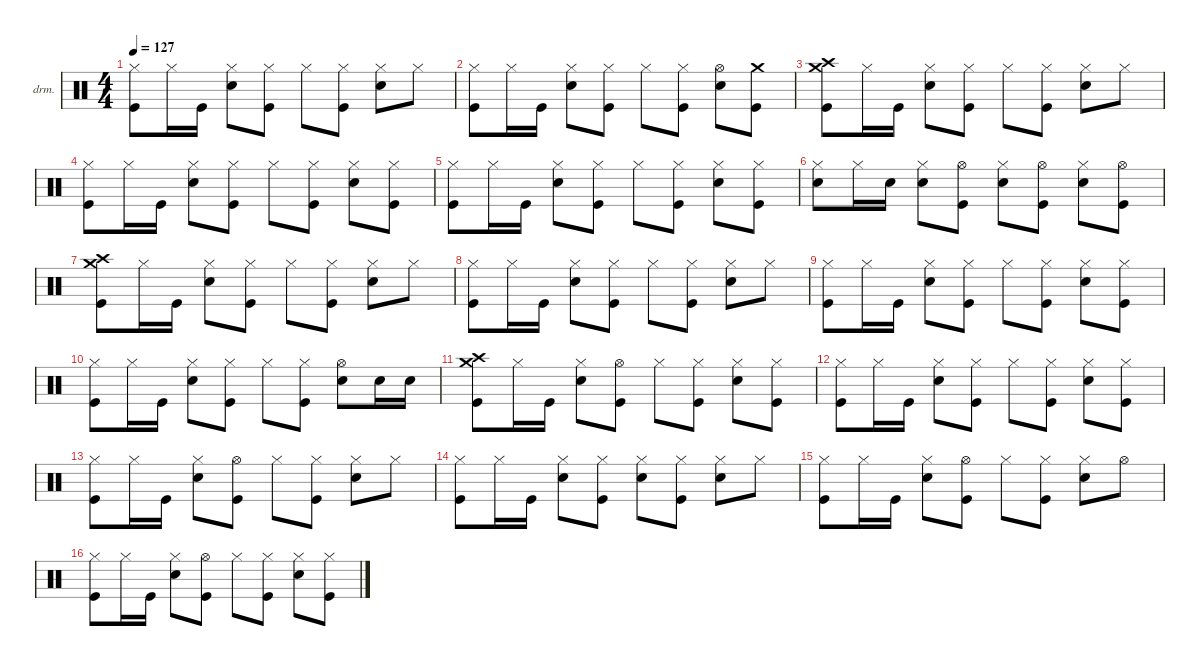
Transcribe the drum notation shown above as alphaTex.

\defaultSystemsLayout 4
\hideDynamics
\bracketExtendMode nobrackets
\firstSystemTrackNameOrientation horizontal
\otherSystemsTrackNameOrientation horizontal
\track ("Drums" "drm.") {instrument percussion}
\staff {score}
\articulation defaults
\ts (4 4)
\tempo 127
\clef neutral
\ks c
("Hi-Hat (closed)" "Kick (hit)").8{dy f beam Down} "Hi-Hat (closed)".16{beam Down} "Kick (hit)".16{beam Down} ("Snare (hit) 2" "Hi-Hat (closed)").8{beam Down} ("Hi-Hat (closed)" "Kick (hit)").8{beam Down} "Hi-Hat (closed)".8{beam Down} ("Hi-Hat (closed)" "Kick (hit)").8{beam Down} ("Snare (hit) 2" "Hi-Hat (closed)").8{beam Down} "Hi-Hat (closed)".8{beam Down} |
("Hi-Hat (closed)" "Kick (hit)").8{beam Down} "Hi-Hat (closed)".16{beam Down} "Kick (hit)".16{beam Down} ("Snare (hit) 2" "Hi-Hat (closed)").8{beam Down} ("Hi-Hat (closed)" "Kick (hit)").8{beam Down} "Hi-Hat (closed)".8{beam Down} ("Hi-Hat (closed)" "Kick (hit)").8{beam Down} ("Snare (hit) 2" "Hi-Hat (open)").8{beam Down} ("Crash medium (hit)" "Kick (hit)").8{beam Down} |
("Crash medium (hit)" "Crash high (hit)" "Kick (hit)").8{beam Down} "Hi-Hat (closed)".16{beam Down} "Kick (hit)".16{beam Down} ("Snare (hit) 2" "Hi-Hat (closed)").8{beam Down} ("Hi-Hat (closed)" "Kick (hit)").8{beam Down} "Hi-Hat (closed)".8{beam Down} ("Hi-Hat (closed)" "Kick (hit)").8{beam Down} ("Snare (hit) 2" "Hi-Hat (closed)").8{beam Down} "Hi-Hat (closed)".8{beam Down} |
("Hi-Hat (closed)" "Kick (hit)").8{beam Down} "Hi-Hat (closed)".16{beam Down} "Kick (hit)".16{beam Down} ("Snare (hit) 2" "Hi-Hat (closed)").8{beam Down} ("Hi-Hat (closed)" "Kick (hit)").8{beam Down} "Hi-Hat (closed)".8{beam Down} ("Hi-Hat (closed)" "Kick (hit)").8{beam Down} ("Snare (hit) 2" "Hi-Hat (closed)").8{beam Down} ("Hi-Hat (closed)" "Kick (hit)").8{beam Down} |
("Hi-Hat (closed)" "Kick (hit)").8{beam Down} "Hi-Hat (closed)".16{beam Down} "Kick (hit)".16{beam Down} ("Snare (hit) 2" "Hi-Hat (closed)").8{beam Down} ("Hi-Hat (closed)" "Kick (hit)").8{beam Down} "Hi-Hat (closed)".8{beam Down} ("Hi-Hat (closed)" "Kick (hit)").8{beam Down} ("Snare (hit) 2" "Hi-Hat (closed)").8{beam Down} ("Hi-Hat (closed)" "Kick (hit)").8{beam Down} |
("Snare (hit) 2" "Hi-Hat (closed)").8{beam Down} "Hi-Hat (closed)".16{beam Down} "Snare (hit) 2".16{beam Down} ("Snare (hit) 2" "Hi-Hat (closed)").8{beam Down} ("Hi-Hat (open)" "Kick (hit)").8{beam Down} ("Snare (hit) 2" "Hi-Hat (closed)").8{beam Down} ("Hi-Hat (open)" "Kick (hit)").8{beam Down} ("Snare (hit) 2" "Hi-Hat (closed)").8{beam Down} ("Hi-Hat (open)" "Kick (hit)").8{beam Down} |
("Crash medium (hit)" "Crash high (hit)" "Kick (hit)").8{beam Down} "Hi-Hat (closed)".16{beam Down} "Kick (hit)".16{beam Down} ("Snare (hit) 2" "Hi-Hat (closed)").8{beam Down} ("Hi-Hat (closed)" "Kick (hit)").8{beam Down} "Hi-Hat (closed)".8{beam Down} ("Hi-Hat (closed)" "Kick (hit)").8{beam Down} ("Snare (hit) 2" "Hi-Hat (closed)").8{beam Down} "Hi-Hat (closed)".8{beam Down} |
("Hi-Hat (closed)" "Kick (hit)").8{beam Down} "Hi-Hat (closed)".16{beam Down} "Kick (hit)".16{beam Down} ("Snare (hit) 2" "Hi-Hat (closed)").8{beam Down} ("Hi-Hat (closed)" "Kick (hit)").8{beam Down} "Hi-Hat (closed)".8{beam Down} ("Hi-Hat (closed)" "Kick (hit)").8{beam Down} ("Snare (hit) 2" "Hi-Hat (closed)").8{beam Down} "Hi-Hat (closed)".8{beam Down} |
("Hi-Hat (closed)" "Kick (hit)").8{beam Down} "Hi-Hat (closed)".16{beam Down} "Kick (hit)".16{beam Down} ("Snare (hit) 2" "Hi-Hat (closed)").8{beam Down} ("Hi-Hat (closed)" "Kick (hit)").8{beam Down} "Hi-Hat (closed)".8{beam Down} ("Hi-Hat (closed)" "Kick (hit)").8{beam Down} ("Snare (hit) 2" "Hi-Hat (closed)").8{beam Down} ("Hi-Hat (closed)" "Kick (hit)").8{beam Down} |
("Hi-Hat (closed)" "Kick (hit)").8{beam Down} "Hi-Hat (closed)".16{beam Down} "Kick (hit)".16{beam Down} ("Snare (hit) 2" "Hi-Hat (closed)").8{beam Down} ("Hi-Hat (closed)" "Kick (hit)").8{beam Down} "Hi-Hat (closed)".8{beam Down} ("Hi-Hat (closed)" "Kick (hit)").8{beam Down} ("Snare (hit) 2" "Hi-Hat (open)").8{beam Down} "Snare (hit) 2".16{beam Down} "Snare (hit) 2".16{beam Down} |
("Crash medium (hit)" "Crash high (hit)" "Kick (hit)").8{beam Down} "Hi-Hat (closed)".16{beam Down} "Kick (hit)".16{beam Down} ("Snare (hit) 2" "Hi-Hat (closed)").8{beam Down} ("Hi-Hat (open)" "Kick (hit)").8{beam Down} "Hi-Hat (closed)".8{beam Down} ("Hi-Hat (closed)" "Kick (hit)").8{beam Down} ("Snare (hit) 2" "Hi-Hat (closed)").8{beam Down} ("Hi-Hat (closed)" "Kick (hit)").8{beam Down} |
("Hi-Hat (closed)" "Kick (hit)").8{beam Down} "Hi-Hat (closed)".16{beam Down} "Kick (hit)".16{beam Down} ("Snare (hit) 2" "Hi-Hat (closed)").8{beam Down} ("Hi-Hat (closed)" "Kick (hit)").8{beam Down} "Hi-Hat (closed)".8{beam Down} ("Hi-Hat (closed)" "Kick (hit)").8{beam Down} ("Snare (hit) 2" "Hi-Hat (closed)").8{beam Down} ("Hi-Hat (closed)" "Kick (hit)").8{beam Down} |
("Hi-Hat (closed)" "Kick (hit)").8{beam Down} "Hi-Hat (closed)".16{beam Down} "Kick (hit)".16{beam Down} ("Snare (hit) 2" "Hi-Hat (closed)").8{beam Down} ("Hi-Hat (open)" "Kick (hit)").8{beam Down} "Hi-Hat (closed)".8{beam Down} ("Hi-Hat (closed)" "Kick (hit)").8{beam Down} ("Snare (hit) 2" "Hi-Hat (closed)").8{beam Down} "Hi-Hat (closed)".8{beam Down} |
("Hi-Hat (closed)" "Kick (hit)").8{beam Down} "Hi-Hat (closed)".16{beam Down} "Kick (hit)".16{beam Down} ("Snare (hit) 2" "Hi-Hat (closed)").8{beam Down} ("Hi-Hat (closed)" "Kick (hit)").8{beam Down} ("Snare (hit) 2" "Hi-Hat (closed)").8{beam Down} ("Hi-Hat (closed)" "Kick (hit)").8{beam Down} ("Snare (hit) 2" "Hi-Hat (closed)").8{beam Down} "Hi-Hat (closed)".8{beam Down} |
("Hi-Hat (closed)" "Kick (hit)").8{beam Down} "Hi-Hat (closed)".16{beam Down} "Kick (hit)".16{beam Down} ("Snare (hit) 2" "Hi-Hat (closed)").8{beam Down} ("Hi-Hat (open)" "Kick (hit)").8{beam Down} "Hi-Hat (closed)".8{beam Down} ("Hi-Hat (closed)" "Kick (hit)").8{beam Down} ("Snare (hit) 2" "Hi-Hat (closed)").8{beam Down} "Hi-Hat (open)".8{beam Down} |
("Hi-Hat (closed)" "Kick (hit)").8{beam Down} "Hi-Hat (closed)".16{beam Down} "Kick (hit)".16{beam Down} ("Snare (hit) 2" "Hi-Hat (closed)").8{beam Down} ("Hi-Hat (open)" "Kick (hit)").8{beam Down} "Hi-Hat (closed)".8{beam Down} ("Hi-Hat (closed)" "Kick (hit)").8{beam Down} ("Snare (hit) 2" "Hi-Hat (closed)").8{beam Down} ("Hi-Hat (closed)" "Kick (hit)").8{beam Down}
